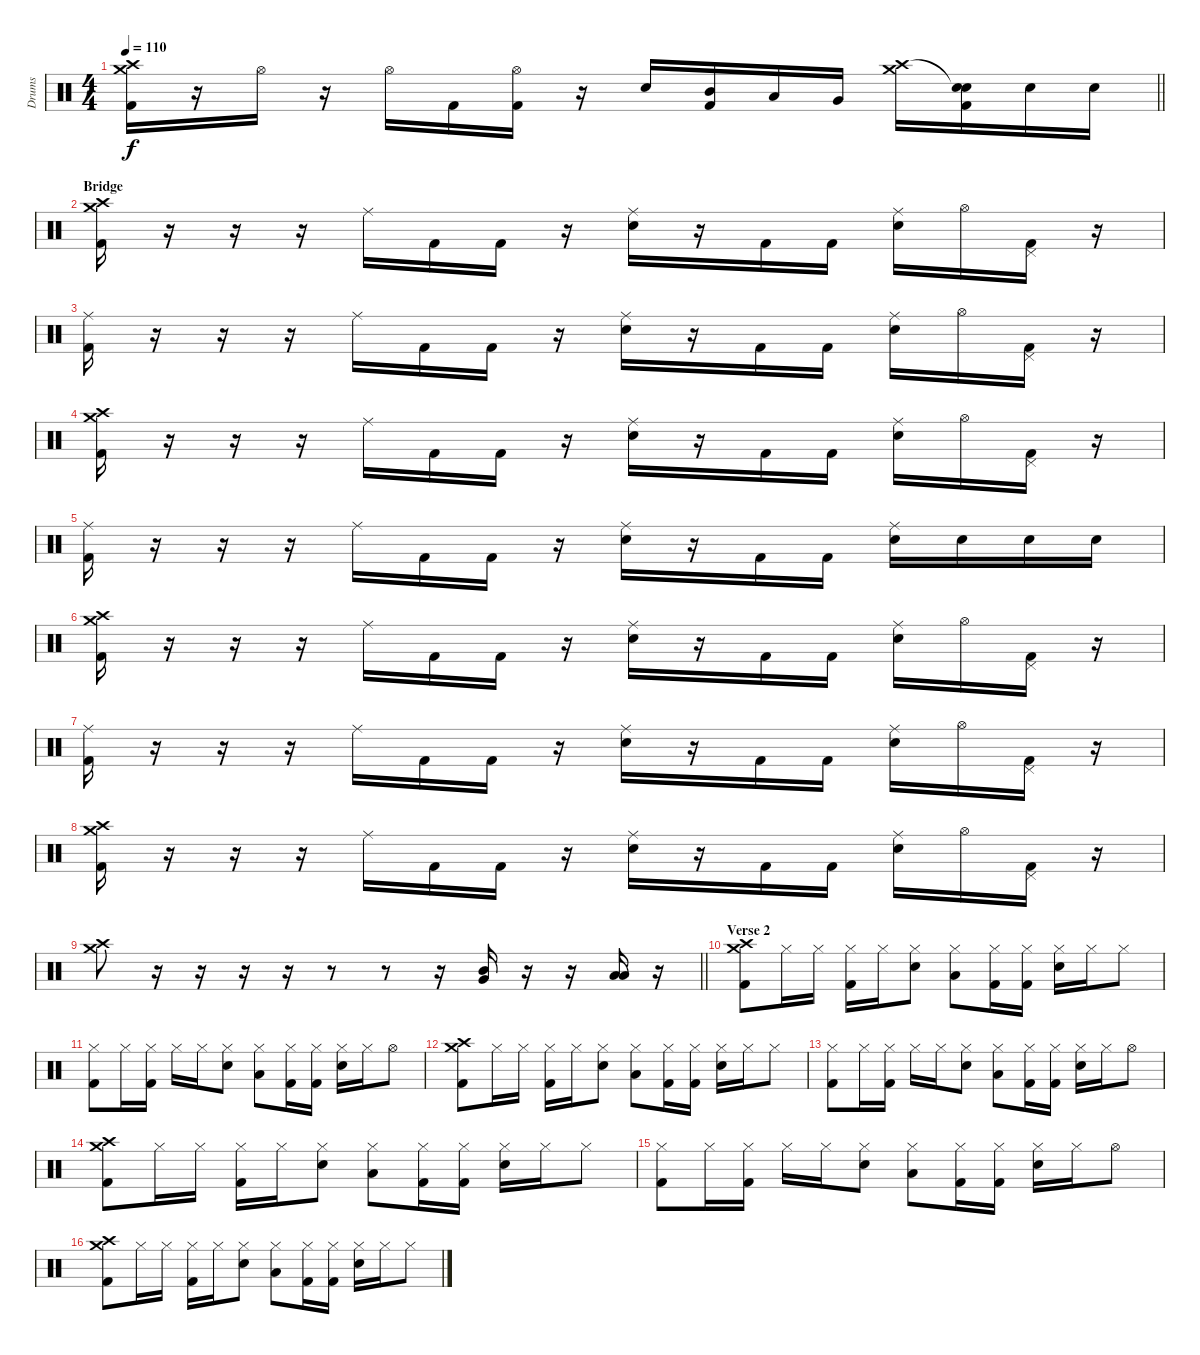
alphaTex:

\track ("Drums" "Drums") {instrument percussion}
\staff {score}
\articulation defaults
\ts (4 4)
\tempo 110
\clef neutral
\barLineRight lightlight
\ks c
("Crash medium (hit)" "Crash high (hit)" "Kick (hit) 2").16{dy f} r.16 "Hi-Hat (open)".16 r.16 "Hi-Hat (open)".16 "Kick (hit) 2".16 ("Hi-Hat (open)" "Kick (hit) 2").16 r.16 "Snare (hit) 2".16 ("Mid Tom (hit)" "Kick (hit) 2").16 "Low Tom (hit)".16 "Very Low Tom (hit)".16 ("Crash high (hit)" "Crash medium (hit)").16 ("Snare (hit)"{t} "Snare (hit) 2" "Kick (hit) 2").16 "Snare (hit) 2".16 "Snare (hit) 2".16 |
\section ("" "Bridge ")
("Crash medium (hit)" "Crash high (hit)" "Kick (hit) 2").16 r.16 r.16 r.16 "Ride (middle)".16 "Kick (hit) 2".16 "Kick (hit) 2".16 r.16 ("Ride (middle)" "Snare (hit) 2").16 r.16 "Kick (hit) 2".16 "Kick (hit) 2".16 ("Ride (middle)" "Snare (hit) 2").16 "Hi-Hat (open)".16 ("Pedal Hi-Hat (hit)" "Kick (hit) 2").16 r.16 |
("Ride (middle)" "Kick (hit) 2").16 r.16 r.16 r.16 "Ride (middle)".16 "Kick (hit) 2".16 "Kick (hit) 2".16 r.16 ("Ride (middle)" "Snare (hit) 2").16 r.16 "Kick (hit) 2".16 "Kick (hit) 2".16 ("Ride (middle)" "Snare (hit) 2").16 "Hi-Hat (open)".16 ("Pedal Hi-Hat (hit)" "Kick (hit) 2").16 r.16 |
("Crash medium (hit)" "Crash high (hit)" "Kick (hit) 2").16 r.16 r.16 r.16 "Ride (middle)".16 "Kick (hit) 2".16 "Kick (hit) 2".16 r.16 ("Ride (middle)" "Snare (hit) 2").16 r.16 "Kick (hit) 2".16 "Kick (hit) 2".16 ("Ride (middle)" "Snare (hit) 2").16 "Hi-Hat (open)".16 ("Pedal Hi-Hat (hit)" "Kick (hit) 2").16 r.16 |
("Ride (middle)" "Kick (hit) 2").16 r.16 r.16 r.16 "Ride (middle)".16 "Kick (hit) 2".16 "Kick (hit) 2".16 r.16 ("Ride (middle)" "Snare (hit) 2").16 r.16 "Kick (hit) 2".16 "Kick (hit) 2".16 ("Ride (middle)" "Snare (hit) 2").16 "Snare (hit) 2".16 "Snare (hit) 2".16 "Snare (hit) 2".16 |
("Crash medium (hit)" "Crash high (hit)" "Kick (hit) 2").16 r.16 r.16 r.16 "Ride (middle)".16 "Kick (hit) 2".16 "Kick (hit) 2".16 r.16 ("Ride (middle)" "Snare (hit) 2").16 r.16 "Kick (hit) 2".16 "Kick (hit) 2".16 ("Ride (middle)" "Snare (hit) 2").16 "Hi-Hat (open)".16 ("Pedal Hi-Hat (hit)" "Kick (hit) 2").16 r.16 |
("Ride (middle)" "Kick (hit) 2").16 r.16 r.16 r.16 "Ride (middle)".16 "Kick (hit) 2".16 "Kick (hit) 2".16 r.16 ("Ride (middle)" "Snare (hit) 2").16 r.16 "Kick (hit) 2".16 "Kick (hit) 2".16 ("Ride (middle)" "Snare (hit) 2").16 "Hi-Hat (open)".16 ("Pedal Hi-Hat (hit)" "Kick (hit) 2").16 r.16 |
("Crash medium (hit)" "Crash high (hit)" "Kick (hit) 2").16 r.16 r.16 r.16 "Ride (middle)".16 "Kick (hit) 2".16 "Kick (hit) 2".16 r.16 ("Ride (middle)" "Snare (hit) 2").16 r.16 "Kick (hit) 2".16 "Kick (hit) 2".16 ("Ride (middle)" "Snare (hit) 2").16 "Hi-Hat (open)".16 ("Pedal Hi-Hat (hit)" "Kick (hit) 2").16 r.16 |
\barLineRight lightlight
("Crash medium (hit)" "Crash high (hit)").8 r.16 r.16 r.16 r.16 r.8 r.8 r.16 ("Very Low Tom (hit)" "Mid Tom (hit)").16 r.16 r.16 ("Low Floor Tom (hit)" "Low Tom (hit)").16 r.16 |
\section ("" "Verse 2")
("Crash medium (hit)" "Crash high (hit)" "Kick (hit) 2").8 "Hi-Hat (closed)".16 "Hi-Hat (closed)".16 ("Hi-Hat (closed)" "Kick (hit) 2").16 "Hi-Hat (closed)".16 ("Hi-Hat (closed)" "Snare (hit) 2").8 ("Hi-Hat (closed)" "Low Tom (hit)").8 ("Hi-Hat (closed)" "Kick (hit) 2").16 ("Hi-Hat (closed)" "Kick (hit) 2").16 ("Hi-Hat (closed)" "Snare (hit) 2").16 "Hi-Hat (closed)".16 "Hi-Hat (closed)".8 |
("Hi-Hat (closed)" "Kick (hit) 2").8 "Hi-Hat (closed)".16 ("Hi-Hat (closed)" "Kick (hit) 2").16 "Hi-Hat (closed)".16 "Hi-Hat (closed)".16 ("Hi-Hat (closed)" "Snare (hit) 2").8 ("Hi-Hat (closed)" "Low Tom (hit)").8 ("Hi-Hat (closed)" "Kick (hit) 2").16 ("Hi-Hat (closed)" "Kick (hit) 2").16 ("Hi-Hat (closed)" "Snare (hit) 2").16 "Hi-Hat (closed)".16 "Hi-Hat (open)".8 |
("Crash medium (hit)" "Crash high (hit)" "Kick (hit) 2").8 "Hi-Hat (closed)".16 "Hi-Hat (closed)".16 ("Hi-Hat (closed)" "Kick (hit) 2").16 "Hi-Hat (closed)".16 ("Hi-Hat (closed)" "Snare (hit) 2").8 ("Hi-Hat (closed)" "Low Tom (hit)").8 ("Hi-Hat (closed)" "Kick (hit) 2").16 ("Hi-Hat (closed)" "Kick (hit) 2").16 ("Hi-Hat (closed)" "Snare (hit) 2").16 "Hi-Hat (closed)".16 "Hi-Hat (closed)".8 |
("Hi-Hat (closed)" "Kick (hit) 2").8 "Hi-Hat (closed)".16 ("Hi-Hat (closed)" "Kick (hit) 2").16 "Hi-Hat (closed)".16 "Hi-Hat (closed)".16 ("Hi-Hat (closed)" "Snare (hit) 2").8 ("Hi-Hat (closed)" "Low Tom (hit)").8 ("Hi-Hat (closed)" "Kick (hit) 2").16 ("Hi-Hat (closed)" "Kick (hit) 2").16 ("Hi-Hat (closed)" "Snare (hit) 2").16 "Hi-Hat (closed)".16 "Hi-Hat (open)".8 |
("Crash medium (hit)" "Crash high (hit)" "Kick (hit) 2").8 "Hi-Hat (closed)".16 "Hi-Hat (closed)".16 ("Hi-Hat (closed)" "Kick (hit) 2").16 "Hi-Hat (closed)".16 ("Hi-Hat (closed)" "Snare (hit) 2").8 ("Hi-Hat (closed)" "Low Tom (hit)").8 ("Hi-Hat (closed)" "Kick (hit) 2").16 ("Hi-Hat (closed)" "Kick (hit) 2").16 ("Hi-Hat (closed)" "Snare (hit) 2").16 "Hi-Hat (closed)".16 "Hi-Hat (closed)".8 |
("Hi-Hat (closed)" "Kick (hit) 2").8 "Hi-Hat (closed)".16 ("Hi-Hat (closed)" "Kick (hit) 2").16 "Hi-Hat (closed)".16 "Hi-Hat (closed)".16 ("Hi-Hat (closed)" "Snare (hit) 2").8 ("Hi-Hat (closed)" "Low Tom (hit)").8 ("Hi-Hat (closed)" "Kick (hit) 2").16 ("Hi-Hat (closed)" "Kick (hit) 2").16 ("Hi-Hat (closed)" "Snare (hit) 2").16 "Hi-Hat (closed)".16 "Hi-Hat (open)".8 |
("Crash medium (hit)" "Crash high (hit)" "Kick (hit) 2").8 "Hi-Hat (closed)".16 "Hi-Hat (closed)".16 ("Hi-Hat (closed)" "Kick (hit) 2").16 "Hi-Hat (closed)".16 ("Hi-Hat (closed)" "Snare (hit) 2").8 ("Hi-Hat (closed)" "Low Tom (hit)").8 ("Hi-Hat (closed)" "Kick (hit) 2").16 ("Hi-Hat (closed)" "Kick (hit) 2").16 ("Hi-Hat (closed)" "Snare (hit) 2").16 "Hi-Hat (closed)".16 "Hi-Hat (closed)".8
